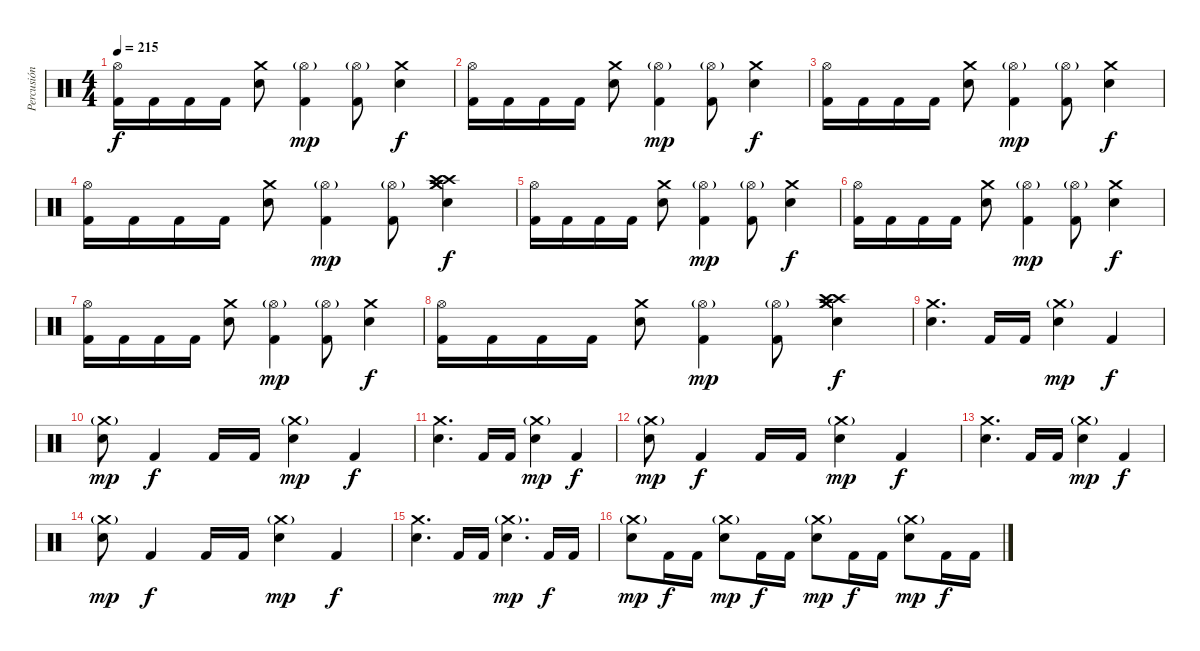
\track ("Percusión" "Percusión") {instrument percussion}
\staff {score}
\articulation defaults
\ts (4 4)
\tempo 215
\clef neutral
\ks c
("Hi-Hat (open)" "Kick (hit) 2").16{dy f} "Kick (hit) 2".16 "Kick (hit) 2".16 "Kick (hit) 2".16 ("Crash medium (hit)" "Snare (hit) 2").8 ("Hi-Hat (open)"{g} "Kick (hit) 2").4{dy mp} ("Hi-Hat (open)"{g} "Kick (hit) 2").8 ("Crash medium (hit)" "Snare (hit) 2").4{dy f} |
("Hi-Hat (open)" "Kick (hit) 2").16 "Kick (hit) 2".16 "Kick (hit) 2".16 "Kick (hit) 2".16 ("Crash medium (hit)" "Snare (hit) 2").8 ("Hi-Hat (open)"{g} "Kick (hit) 2").4{dy mp} ("Hi-Hat (open)"{g} "Kick (hit) 2").8 ("Crash medium (hit)" "Snare (hit) 2").4{dy f} |
("Hi-Hat (open)" "Kick (hit) 2").16 "Kick (hit) 2".16 "Kick (hit) 2".16 "Kick (hit) 2".16 ("Crash medium (hit)" "Snare (hit) 2").8 ("Hi-Hat (open)"{g} "Kick (hit) 2").4{dy mp} ("Hi-Hat (open)"{g} "Kick (hit) 2").8 ("Crash medium (hit)" "Snare (hit) 2").4{dy f} |
("Hi-Hat (open)" "Kick (hit) 2").16 "Kick (hit) 2".16 "Kick (hit) 2".16 "Kick (hit) 2".16 ("Crash medium (hit)" "Snare (hit) 2").8 ("Hi-Hat (open)"{g} "Kick (hit) 2").4{dy mp} ("Hi-Hat (open)"{g} "Kick (hit) 2").8 ("Crash medium (hit)" "Crash high (hit)" "Crash high (hit)" "Crash medium (hit)" "Snare (hit) 2").4{dy f} |
("Hi-Hat (open)" "Kick (hit) 2").16 "Kick (hit) 2".16 "Kick (hit) 2".16 "Kick (hit) 2".16 ("Crash medium (hit)" "Snare (hit) 2").8 ("Hi-Hat (open)"{g} "Kick (hit) 2").4{dy mp} ("Hi-Hat (open)"{g} "Kick (hit) 2").8 ("Crash medium (hit)" "Snare (hit) 2").4{dy f} |
("Hi-Hat (open)" "Kick (hit) 2").16 "Kick (hit) 2".16 "Kick (hit) 2".16 "Kick (hit) 2".16 ("Crash medium (hit)" "Snare (hit) 2").8 ("Hi-Hat (open)"{g} "Kick (hit) 2").4{dy mp} ("Hi-Hat (open)"{g} "Kick (hit) 2").8 ("Crash medium (hit)" "Snare (hit) 2").4{dy f} |
("Hi-Hat (open)" "Kick (hit) 2").16 "Kick (hit) 2".16 "Kick (hit) 2".16 "Kick (hit) 2".16 ("Crash medium (hit)" "Snare (hit) 2").8 ("Hi-Hat (open)"{g} "Kick (hit) 2").4{dy mp} ("Hi-Hat (open)"{g} "Kick (hit) 2").8 ("Crash medium (hit)" "Snare (hit) 2").4{dy f} |
("Hi-Hat (open)" "Kick (hit) 2").16 "Kick (hit) 2".16 "Kick (hit) 2".16 "Kick (hit) 2".16 ("Crash medium (hit)" "Snare (hit) 2").8 ("Hi-Hat (open)"{g} "Kick (hit) 2").4{dy mp} ("Hi-Hat (open)"{g} "Kick (hit) 2").8 ("Crash medium (hit)" "Crash high (hit)" "Crash high (hit)" "Crash medium (hit)" "Snare (hit) 2").4{dy f} |
("Crash medium (hit)" "Snare (hit) 2").4{d} "Kick (hit) 2".16 "Kick (hit) 2".16 ("Crash medium (hit)"{g} "Snare (hit) 2").4{dy mp} "Kick (hit) 2".4{dy f} |
("Crash medium (hit)"{g} "Snare (hit) 2").8{dy mp} "Kick (hit) 2".4{dy f} "Kick (hit) 2".16 "Kick (hit) 2".16 ("Crash medium (hit)"{g} "Snare (hit) 2").4{dy mp} "Kick (hit) 2".4{dy f} |
("Crash medium (hit)" "Snare (hit) 2").4{d} "Kick (hit) 2".16 "Kick (hit) 2".16 ("Crash medium (hit)"{g} "Snare (hit) 2").4{dy mp} "Kick (hit) 2".4{dy f} |
("Crash medium (hit)"{g} "Snare (hit) 2").8{dy mp} "Kick (hit) 2".4{dy f} "Kick (hit) 2".16 "Kick (hit) 2".16 ("Crash medium (hit)"{g} "Snare (hit) 2").4{dy mp} "Kick (hit) 2".4{dy f} |
("Crash medium (hit)" "Snare (hit) 2").4{d} "Kick (hit) 2".16 "Kick (hit) 2".16 ("Crash medium (hit)"{g} "Snare (hit) 2").4{dy mp} "Kick (hit) 2".4{dy f} |
("Crash medium (hit)"{g} "Snare (hit) 2").8{dy mp} "Kick (hit) 2".4{dy f} "Kick (hit) 2".16 "Kick (hit) 2".16 ("Crash medium (hit)"{g} "Snare (hit) 2").4{dy mp} "Kick (hit) 2".4{dy f} |
("Crash medium (hit)" "Snare (hit) 2").4{d} "Kick (hit) 2".16 "Kick (hit) 2".16 ("Crash medium (hit)"{g} "Snare (hit) 2").4{d dy mp} "Kick (hit) 2".16{dy f} "Kick (hit) 2".16 |
("Crash medium (hit)"{g} "Snare (hit) 2").8{dy mp} "Kick (hit) 2".16{dy f} "Kick (hit) 2".16 ("Crash medium (hit)"{g} "Snare (hit) 2").8{dy mp} "Kick (hit) 2".16{dy f} "Kick (hit) 2".16 ("Crash medium (hit)"{g} "Snare (hit) 2").8{dy mp} "Kick (hit) 2".16{dy f} "Kick (hit) 2".16 ("Crash medium (hit)"{g} "Snare (hit) 2").8{dy mp} "Kick (hit) 2".16{dy f} "Kick (hit) 2".16
